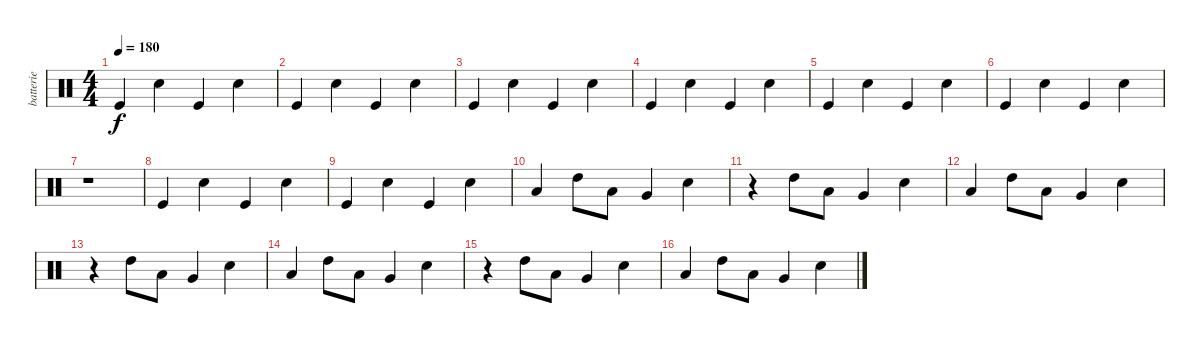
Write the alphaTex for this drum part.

\track ("batterie" "batterie") {instrument percussion}
\staff {score}
\articulation defaults
\ts (4 4)
\tempo 180
\clef neutral
\ks c "Kick (hit)".4{dy f} "Snare (hit) 2".4 "Kick (hit)".4 "Snare (hit) 2".4
|
"Kick (hit)".4 "Snare (hit) 2".4 "Kick (hit)".4 "Snare (hit) 2".4 |
"Kick (hit)".4 "Snare (hit) 2".4 "Kick (hit)".4 "Snare (hit) 2".4 |
"Kick (hit)".4 "Snare (hit) 2".4 "Kick (hit)".4 "Snare (hit) 2".4 |
"Kick (hit)".4 "Snare (hit) 2".4 "Kick (hit)".4 "Snare (hit) 2".4 |
"Kick (hit)".4 "Snare (hit) 2".4 "Kick (hit)".4 "Snare (hit) 2".4 |
r.1 |
"Kick (hit)".4 "Snare (hit) 2".4 "Kick (hit)".4 "Snare (hit) 2".4 |
"Kick (hit)".4 "Snare (hit) 2".4 "Kick (hit)".4 "Snare (hit) 2".4 |
"Low Floor Tom (hit)".4 "High Tom (hit)".8 "Low Tom (hit)".8 "Very Low Tom (hit)".4 "Snare (hit) 2".4 |
r.4 "High Tom (hit)".8 "Low Tom (hit)".8 "Very Low Tom (hit)".4 "Snare (hit) 2".4 |
"Low Floor Tom (hit)".4 "High Tom (hit)".8 "Low Tom (hit)".8 "Very Low Tom (hit)".4 "Snare (hit) 2".4 |
r.4 "High Tom (hit)".8 "Low Tom (hit)".8 "Very Low Tom (hit)".4 "Snare (hit) 2".4 |
"Low Floor Tom (hit)".4 "High Tom (hit)".8 "Low Tom (hit)".8 "Very Low Tom (hit)".4 "Snare (hit) 2".4 |
r.4 "High Tom (hit)".8 "Low Tom (hit)".8 "Very Low Tom (hit)".4 "Snare (hit) 2".4 |
"Low Floor Tom (hit)".4 "High Tom (hit)".8 "Low Tom (hit)".8 "Very Low Tom (hit)".4 "Snare (hit) 2".4
